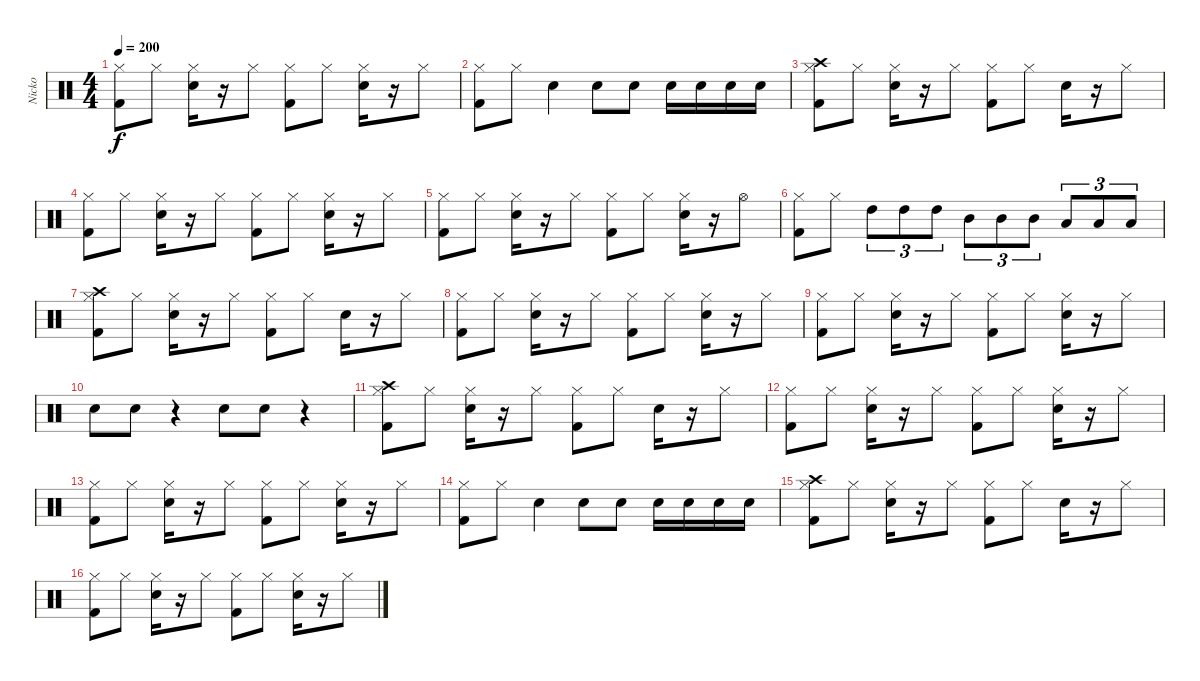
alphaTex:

\track ("Nicko" "Nicko") {instrument percussion}
\staff {score}
\articulation defaults
\ts (4 4)
\tempo 200
\clef neutral
\ks c
("Kick (hit) 2" "Hi-Hat (closed)").8{dy f} "Hi-Hat (closed)".8 ("Snare (hit) 2" "Hi-Hat (closed)").16 r.16 "Hi-Hat (closed)".8 ("Kick (hit) 2" "Hi-Hat (closed)").8 "Hi-Hat (closed)".8 ("Snare (hit) 2" "Hi-Hat (closed)").16 r.16 "Hi-Hat (closed)".8 |
("Kick (hit) 2" "Hi-Hat (closed)").8 "Hi-Hat (closed)".8 "Snare (hit) 2".4 "Snare (hit) 2".8 "Snare (hit) 2".8 "Snare (hit) 2".16 "Snare (hit) 2".16 "Snare (hit) 2".16 "Snare (hit) 2".16 |
("Kick (hit) 2" "Hi-Hat (closed)" "Crash high (hit)").8 "Hi-Hat (closed)".8 ("Snare (hit) 2" "Hi-Hat (closed)").16 r.16 "Hi-Hat (closed)".8 ("Kick (hit) 2" "Hi-Hat (closed)").8 "Hi-Hat (closed)".8 "Snare (hit) 2".16 r.16 "Hi-Hat (closed)".8 |
("Kick (hit) 2" "Hi-Hat (closed)").8 "Hi-Hat (closed)".8 ("Snare (hit) 2" "Hi-Hat (closed)").16 r.16 "Hi-Hat (closed)".8 ("Kick (hit) 2" "Hi-Hat (closed)").8 "Hi-Hat (closed)".8 ("Snare (hit) 2" "Hi-Hat (closed)").16 r.16 "Hi-Hat (closed)".8 |
("Kick (hit) 2" "Hi-Hat (closed)").8 "Hi-Hat (closed)".8 ("Snare (hit) 2" "Hi-Hat (closed)").16 r.16 "Hi-Hat (closed)".8 ("Kick (hit) 2" "Hi-Hat (closed)").8 "Hi-Hat (closed)".8 ("Snare (hit) 2" "Hi-Hat (closed)").16 r.16 "Hi-Hat (open)".8 |
("Kick (hit) 2" "Hi-Hat (closed)").8 "Hi-Hat (closed)".8 "High Tom (hit)".8{tu (3 2)} "High Tom (hit)".8{tu (3 2)} "High Tom (hit)".8{tu (3 2)} "Mid Tom (hit)".8{tu (3 2)} "Mid Tom (hit)".8{tu (3 2)} "Mid Tom (hit)".8{tu (3 2)} "Low Tom (hit)".8{tu (3 2)} "Low Tom (hit)".8{tu (3 2)} "Low Tom (hit)".8{tu (3 2)} |
("Kick (hit) 2" "Hi-Hat (closed)" "Crash high (hit)").8 "Hi-Hat (closed)".8 ("Snare (hit) 2" "Hi-Hat (closed)").16 r.16 "Hi-Hat (closed)".8 ("Kick (hit) 2" "Hi-Hat (closed)").8 "Hi-Hat (closed)".8 "Snare (hit) 2".16 r.16 "Hi-Hat (closed)".8 |
("Kick (hit) 2" "Hi-Hat (closed)").8 "Hi-Hat (closed)".8 ("Snare (hit) 2" "Hi-Hat (closed)").16 r.16 "Hi-Hat (closed)".8 ("Kick (hit) 2" "Hi-Hat (closed)").8 "Hi-Hat (closed)".8 ("Snare (hit) 2" "Hi-Hat (closed)").16 r.16 "Hi-Hat (closed)".8 |
("Kick (hit) 2" "Hi-Hat (closed)").8 "Hi-Hat (closed)".8 ("Snare (hit) 2" "Hi-Hat (closed)").16 r.16 "Hi-Hat (closed)".8 ("Kick (hit) 2" "Hi-Hat (closed)").8 "Hi-Hat (closed)".8 ("Snare (hit) 2" "Hi-Hat (closed)").16 r.16 "Hi-Hat (closed)".8 |
"Snare (hit) 2".8 "Snare (hit) 2".8 r.4 "Snare (hit) 2".8 "Snare (hit) 2".8 r.4 |
("Kick (hit) 2" "Hi-Hat (closed)" "Crash high (hit)").8 "Hi-Hat (closed)".8 ("Snare (hit) 2" "Hi-Hat (closed)").16 r.16 "Hi-Hat (closed)".8 ("Kick (hit) 2" "Hi-Hat (closed)").8 "Hi-Hat (closed)".8 "Snare (hit) 2".16 r.16 "Hi-Hat (closed)".8 |
("Kick (hit) 2" "Hi-Hat (closed)").8 "Hi-Hat (closed)".8 ("Snare (hit) 2" "Hi-Hat (closed)").16 r.16 "Hi-Hat (closed)".8 ("Kick (hit) 2" "Hi-Hat (closed)").8 "Hi-Hat (closed)".8 ("Snare (hit) 2" "Hi-Hat (closed)").16 r.16 "Hi-Hat (closed)".8 |
("Kick (hit) 2" "Hi-Hat (closed)").8 "Hi-Hat (closed)".8 ("Snare (hit) 2" "Hi-Hat (closed)").16 r.16 "Hi-Hat (closed)".8 ("Kick (hit) 2" "Hi-Hat (closed)").8 "Hi-Hat (closed)".8 ("Snare (hit) 2" "Hi-Hat (closed)").16 r.16 "Hi-Hat (closed)".8 |
("Kick (hit) 2" "Hi-Hat (closed)").8 "Hi-Hat (closed)".8 "Snare (hit) 2".4 "Snare (hit) 2".8 "Snare (hit) 2".8 "Snare (hit) 2".16 "Snare (hit) 2".16 "Snare (hit) 2".16 "Snare (hit) 2".16 |
("Kick (hit) 2" "Hi-Hat (closed)" "Crash high (hit)").8 "Hi-Hat (closed)".8 ("Snare (hit) 2" "Hi-Hat (closed)").16 r.16 "Hi-Hat (closed)".8 ("Kick (hit) 2" "Hi-Hat (closed)").8 "Hi-Hat (closed)".8 "Snare (hit) 2".16 r.16 "Hi-Hat (closed)".8 |
("Kick (hit) 2" "Hi-Hat (closed)").8 "Hi-Hat (closed)".8 ("Snare (hit) 2" "Hi-Hat (closed)").16 r.16 "Hi-Hat (closed)".8 ("Kick (hit) 2" "Hi-Hat (closed)").8 "Hi-Hat (closed)".8 ("Snare (hit) 2" "Hi-Hat (closed)").16 r.16 "Hi-Hat (closed)".8
